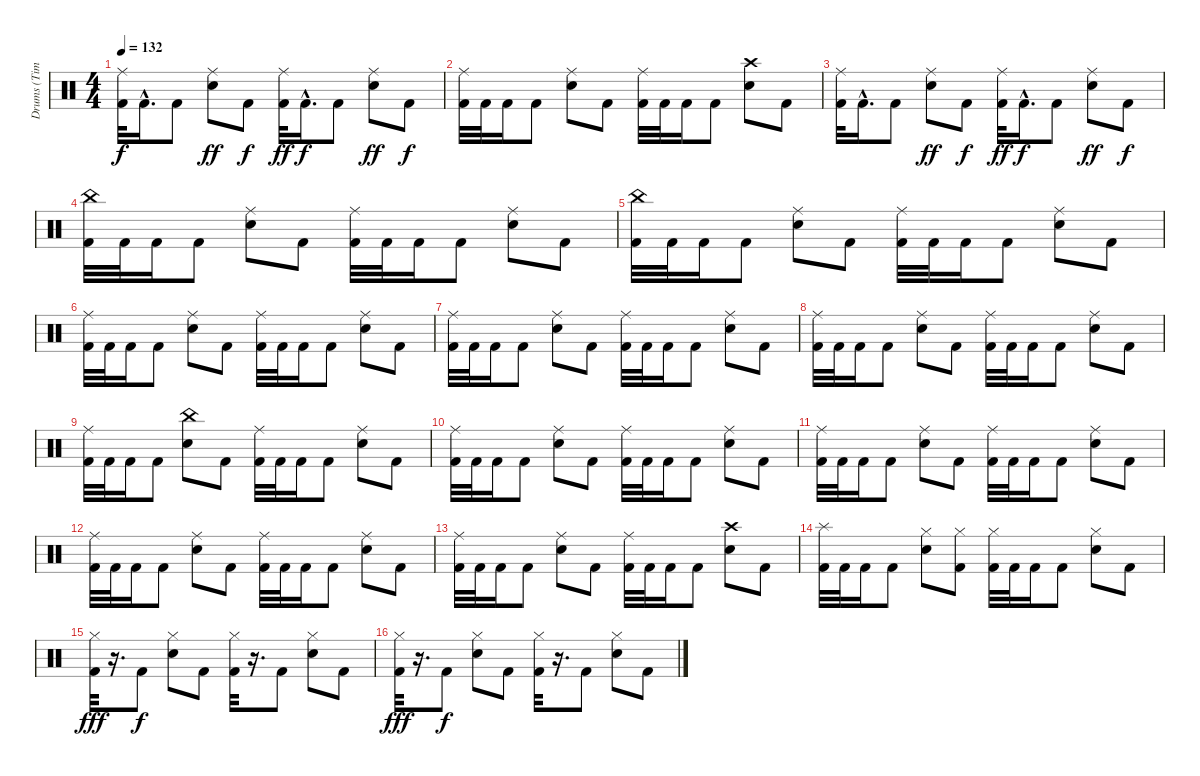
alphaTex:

\track ("Drums (Tim Alexander)" "Drums (Tim") {instrument percussion}
\staff {score}
\articulation defaults
\ts (4 4)
\tempo 132
\clef neutral
\ks c
("Ride (middle)" "Kick (hit) 2").32{dy f} "Kick (hit) 2"{hac}.16{d} "Kick (hit) 2".8 ("Ride (middle)" "Snare (hit) 2").8{dy ff} "Kick (hit) 2".8{dy f} ("Ride (middle)" "Kick (hit) 2").32{dy ff} "Kick (hit) 2"{hac}.16{d dy f} "Kick (hit) 2".8 ("Ride (middle)" "Snare (hit) 2").8{dy ff} "Kick (hit) 2".8{dy f} |
("Ride (middle)" "Kick (hit) 2").32 "Kick (hit) 2".32 "Kick (hit) 2".16 "Kick (hit) 2".8 ("Ride (middle)" "Snare (hit) 2").8 "Kick (hit) 2".8 ("Ride (middle)" "Kick (hit) 2").32 "Kick (hit) 2".32 "Kick (hit) 2".16 "Kick (hit) 2".8 ("Crash high (hit)" "Snare (hit) 2").8 "Kick (hit) 2".8 |
("Ride (middle)" "Kick (hit) 2").32 "Kick (hit) 2"{hac}.16{d} "Kick (hit) 2".8 ("Ride (middle)" "Snare (hit) 2").8{dy ff} "Kick (hit) 2".8{dy f} ("Ride (middle)" "Kick (hit) 2").32{dy ff} "Kick (hit) 2"{hac}.16{d dy f} "Kick (hit) 2".8 ("Ride (middle)" "Snare (hit) 2").8{dy ff} "Kick (hit) 2".8{dy f} |
("China (hit)" "Kick (hit) 2").32 "Kick (hit) 2".32 "Kick (hit) 2".16 "Kick (hit) 2".8 ("Ride (middle)" "Snare (hit) 2").8 "Kick (hit) 2".8 ("Ride (middle)" "Kick (hit) 2").32 "Kick (hit) 2".32 "Kick (hit) 2".16 "Kick (hit) 2".8 ("Ride (middle)" "Snare (hit) 2").8 "Kick (hit) 2".8 |
("China (hit)" "Kick (hit) 2").32 "Kick (hit) 2".32 "Kick (hit) 2".16 "Kick (hit) 2".8 ("Ride (middle)" "Snare (hit) 2").8 "Kick (hit) 2".8 ("Ride (middle)" "Kick (hit) 2").32 "Kick (hit) 2".32 "Kick (hit) 2".16 "Kick (hit) 2".8 ("Ride (middle)" "Snare (hit) 2").8 "Kick (hit) 2".8 |
("Ride (middle)" "Kick (hit) 2").32 "Kick (hit) 2".32 "Kick (hit) 2".16 "Kick (hit) 2".8 ("Ride (middle)" "Snare (hit) 2").8 "Kick (hit) 2".8 ("Ride (middle)" "Kick (hit) 2").32 "Kick (hit) 2".32 "Kick (hit) 2".16 "Kick (hit) 2".8 ("Ride (middle)" "Snare (hit) 2").8 "Kick (hit) 2".8 |
("Ride (middle)" "Kick (hit) 2").32 "Kick (hit) 2".32 "Kick (hit) 2".16 "Kick (hit) 2".8 ("Ride (middle)" "Snare (hit) 2").8 "Kick (hit) 2".8 ("Ride (middle)" "Kick (hit) 2").32 "Kick (hit) 2".32 "Kick (hit) 2".16 "Kick (hit) 2".8 ("Ride (middle)" "Snare (hit) 2").8 "Kick (hit) 2".8 |
("Ride (middle)" "Kick (hit) 2").32 "Kick (hit) 2".32 "Kick (hit) 2".16 "Kick (hit) 2".8 ("Ride (middle)" "Snare (hit) 2").8 "Kick (hit) 2".8 ("Ride (middle)" "Kick (hit) 2").32 "Kick (hit) 2".32 "Kick (hit) 2".16 "Kick (hit) 2".8 ("Ride (middle)" "Snare (hit) 2").8 "Kick (hit) 2".8 |
("Ride (middle)" "Kick (hit) 2").32 "Kick (hit) 2".32 "Kick (hit) 2".16 "Kick (hit) 2".8 ("China (hit)" "Snare (hit) 2").8 "Kick (hit) 2".8 ("Ride (middle)" "Kick (hit) 2").32 "Kick (hit) 2".32 "Kick (hit) 2".16 "Kick (hit) 2".8 ("Ride (middle)" "Snare (hit) 2").8 "Kick (hit) 2".8 |
("Ride (middle)" "Kick (hit) 2").32 "Kick (hit) 2".32 "Kick (hit) 2".16 "Kick (hit) 2".8 ("Ride (middle)" "Snare (hit) 2").8 "Kick (hit) 2".8 ("Ride (middle)" "Kick (hit) 2").32 "Kick (hit) 2".32 "Kick (hit) 2".16 "Kick (hit) 2".8 ("Ride (middle)" "Snare (hit) 2").8 "Kick (hit) 2".8 |
("Ride (middle)" "Kick (hit) 2").32 "Kick (hit) 2".32 "Kick (hit) 2".16 "Kick (hit) 2".8 ("Ride (middle)" "Snare (hit) 2").8 "Kick (hit) 2".8 ("Ride (middle)" "Kick (hit) 2").32 "Kick (hit) 2".32 "Kick (hit) 2".16 "Kick (hit) 2".8 ("Ride (middle)" "Snare (hit) 2").8 "Kick (hit) 2".8 |
("Ride (middle)" "Kick (hit) 2").32 "Kick (hit) 2".32 "Kick (hit) 2".16 "Kick (hit) 2".8 ("Ride (middle)" "Snare (hit) 2").8 "Kick (hit) 2".8 ("Ride (middle)" "Kick (hit) 2").32 "Kick (hit) 2".32 "Kick (hit) 2".16 "Kick (hit) 2".8 ("Ride (middle)" "Snare (hit) 2").8 "Kick (hit) 2".8 |
("Ride (middle)" "Kick (hit) 2").32 "Kick (hit) 2".32 "Kick (hit) 2".16 "Kick (hit) 2".8 ("Ride (middle)" "Snare (hit) 2").8 "Kick (hit) 2".8 ("Ride (middle)" "Kick (hit) 2").32 "Kick (hit) 2".32 "Kick (hit) 2".16 "Kick (hit) 2".8 ("Crash high (hit)" "Snare (hit) 2").8 "Kick (hit) 2".8 |
("Splash (hit)" "Kick (hit) 2").32 "Kick (hit) 2".32 "Kick (hit) 2".16 "Kick (hit) 2".8 ("Hi-Hat (closed)" "Snare (hit) 2").8 ("Hi-Hat (closed)" "Kick (hit) 2").8 ("Hi-Hat (closed)" "Kick (hit) 2").32 "Kick (hit) 2".32 "Kick (hit) 2".16 "Kick (hit) 2".8 ("Hi-Hat (closed)" "Snare (hit) 2").8 "Kick (hit) 2".8 |
("Hi-Hat (closed)" "Kick (hit) 2").32{dy fff} r.16{d} "Kick (hit) 2".8{dy f} ("Hi-Hat (closed)" "Snare (hit) 2").8 "Kick (hit) 2".8 ("Hi-Hat (closed)" "Kick (hit) 2").32 r.16{d} "Kick (hit) 2".8 ("Hi-Hat (closed)" "Snare (hit) 2").8 "Kick (hit) 2".8 |
("Hi-Hat (closed)" "Kick (hit) 2").32{dy fff} r.16{d} "Kick (hit) 2".8{dy f} ("Hi-Hat (closed)" "Snare (hit) 2").8 "Kick (hit) 2".8 ("Hi-Hat (closed)" "Kick (hit) 2").32 r.16{d} "Kick (hit) 2".8 ("Hi-Hat (closed)" "Snare (hit) 2").8 "Kick (hit) 2".8
